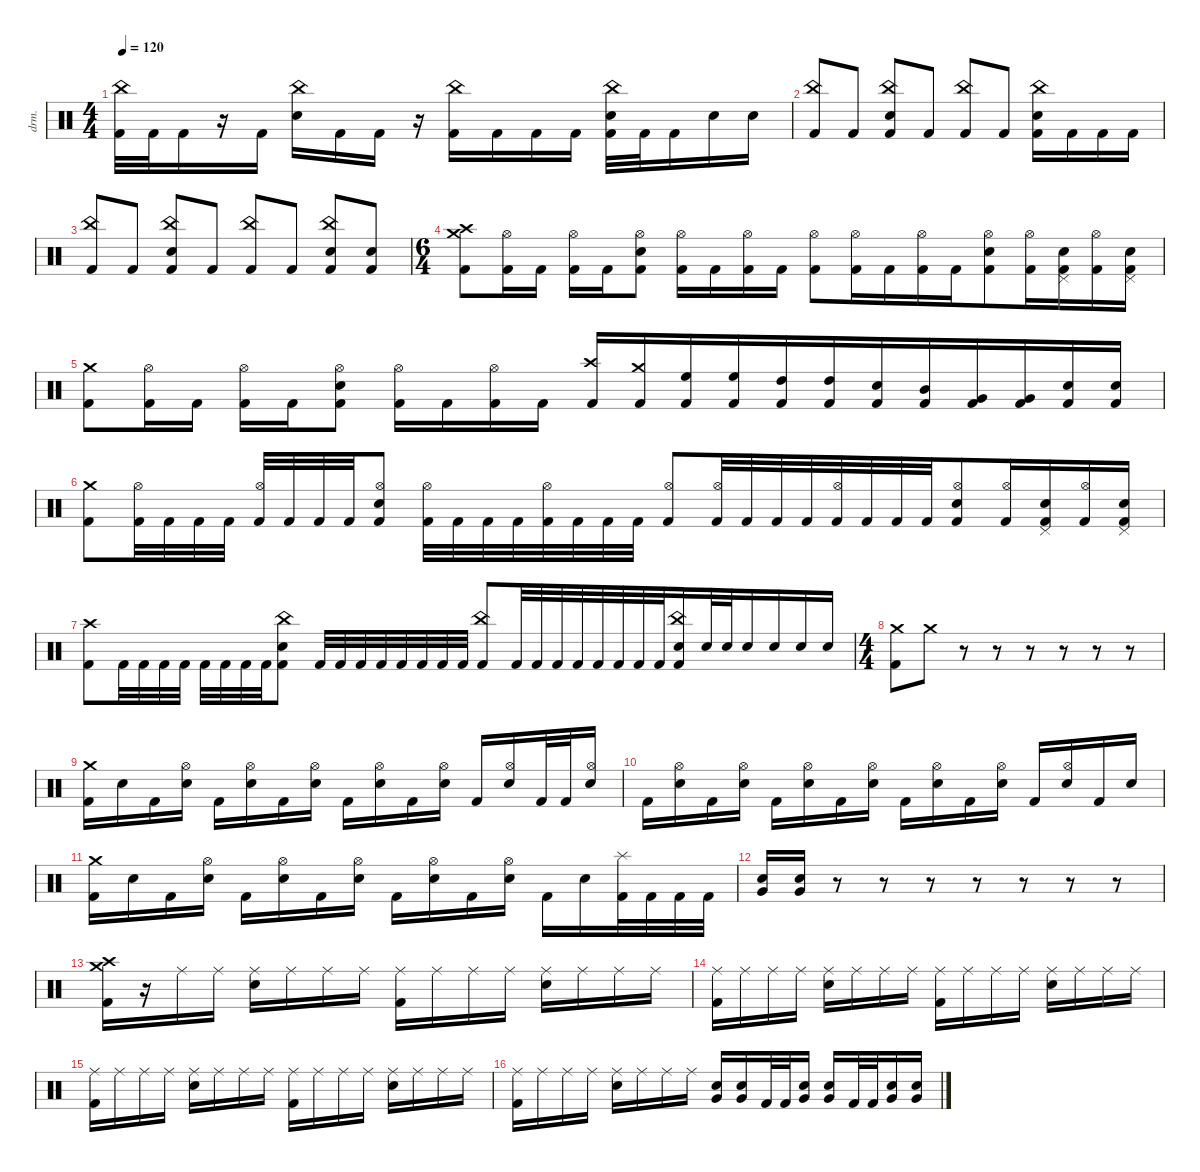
\defaultSystemsLayout 4
\hideDynamics
\bracketExtendMode nobrackets
\otherSystemsTrackNameOrientation horizontal
\track ("Percussion" "drm.") {instrument percussion}
\staff {score}
\articulation defaults
\ts (4 4)
\tempo 120
\clef neutral
\ks c
("Kick (hit) 2" "China (hit)").32{dy fff beam Down} "Kick (hit) 2".32{beam Down} "Kick (hit) 2".16{beam Down} r.16{beam Down} "Kick (hit) 2".16{beam Down} ("Snare (hit) 2" "China (hit)").16{beam Down} "Kick (hit) 2".16{beam Down} "Kick (hit) 2".16{beam Down} r.16{beam Down} ("Kick (hit) 2" "China (hit)").16{beam Down} "Kick (hit) 2".16{beam Down} "Kick (hit) 2".16{beam Down} "Kick (hit) 2".16{beam Down} ("Kick (hit) 2" "Snare (hit) 2" "China (hit)").32{beam Down} "Kick (hit) 2".32{beam Down} "Kick (hit) 2".16{beam Down} "Snare (hit) 2".16{beam Down} "Snare (hit) 2".16{beam Down} |
("Kick (hit) 2" "China (hit)").8{beam Up} "Kick (hit) 2".8{beam Up} ("Kick (hit) 2" "Snare (hit) 2" "China (hit)").8{beam Up} "Kick (hit) 2".8{beam Up} ("Kick (hit) 2" "China (hit)").8{beam Up} "Kick (hit) 2".8{beam Up} ("Kick (hit) 2" "Snare (hit) 2" "China (hit)").16{beam Down} "Kick (hit) 2".16{beam Down} "Kick (hit) 2".16{beam Down} "Kick (hit) 2".16{beam Down} |
("Kick (hit) 2" "China (hit)").8{beam Up} "Kick (hit) 2".8{beam Up} ("Kick (hit) 2" "Snare (hit) 2" "China (hit)").8{beam Up} "Kick (hit) 2".8{beam Up} ("Kick (hit) 2" "China (hit)").8{beam Up} "Kick (hit) 2".8{beam Up} ("Kick (hit) 2" "Snare (hit) 2" "China (hit)").8{beam Up} ("Kick (hit) 2" "Snare (hit) 2").8{beam Up} |
\ts (6 4)
\beaming (8 2 2 2 6)
("Kick (hit) 2" "Crash medium (hit)" "Crash high (hit)").8{beam Down} ("Kick (hit) 2" "Hi-Hat (open)").16{beam Down} "Kick (hit) 2".16{beam Down} ("Kick (hit) 2" "Hi-Hat (open)").16{beam Down} "Kick (hit) 2".16{beam Down} ("Kick (hit) 2" "Snare (hit) 2" "Hi-Hat (open)").8{beam Down} ("Kick (hit) 2" "Hi-Hat (open)").16{beam Down} "Kick (hit) 2".16{beam Down} ("Kick (hit) 2" "Hi-Hat (open)").16{beam Down} "Kick (hit) 2".16{beam Down} ("Kick (hit) 2" "Hi-Hat (open)").8{beam Down} ("Kick (hit) 2" "Hi-Hat (open)").16{beam Down} "Kick (hit) 2".16{beam Down} ("Kick (hit) 2" "Hi-Hat (open)").16{beam Down} "Kick (hit) 2".16{beam Down} ("Kick (hit) 2" "Snare (hit) 2" "Hi-Hat (open)").8{beam Down} ("Kick (hit) 2" "Hi-Hat (open)").16{beam Down} ("Kick (hit) 2" "Snare (hit) 2" "Pedal Hi-Hat (hit)").16{beam Down} ("Kick (hit) 2" "Hi-Hat (open)").16{beam Down} ("Kick (hit) 2" "Snare (hit) 2" "Pedal Hi-Hat (hit)").16{beam Down} |
("Kick (hit) 2" "Crash medium (hit)").8{beam Down} ("Kick (hit) 2" "Hi-Hat (open)").16{beam Down} "Kick (hit) 2".16{beam Down} ("Kick (hit) 2" "Hi-Hat (open)").16{beam Down} "Kick (hit) 2".16{beam Down} ("Kick (hit) 2" "Snare (hit) 2" "Hi-Hat (open)").8{beam Down} ("Kick (hit) 2" "Hi-Hat (open)").16{beam Down} "Kick (hit) 2".16{beam Down} ("Kick (hit) 2" "Hi-Hat (open)").16{beam Down} "Kick (hit) 2".16{beam Down} ("Kick (hit) 2" "Crash high (hit)").16{beam Up} ("Kick (hit) 2" "Crash medium (hit)").16{beam Up} ("Kick (hit) 2" "High Floor Tom (hit)").16{beam Up} ("Kick (hit) 2" "High Floor Tom (hit)").16{beam Up} ("Kick (hit) 2" "High Tom (hit)").16{beam Up} ("Kick (hit) 2" "High Tom (hit)").16{beam Up} ("Kick (hit) 2" "Snare (hit) 2").16{beam Up} ("Kick (hit) 2" "Mid Tom (hit)").16{beam Up} ("Kick (hit) 2" "Very Low Tom (hit)").16{beam Up} ("Kick (hit) 2" "Very Low Tom (hit)").16{beam Up} ("Kick (hit) 2" "Snare (hit) 2").16{beam Up} ("Kick (hit) 2" "Snare (hit) 2").16{beam Up} |
("Kick (hit) 2" "Crash medium (hit)").8{beam Down} ("Kick (hit) 2" "Hi-Hat (open)").32{beam Down} "Kick (hit) 2".32{beam Down} "Kick (hit) 2".32{beam Down} "Kick (hit) 2".32{beam Down} ("Kick (hit) 2" "Hi-Hat (open)").32{beam Up} "Kick (hit) 2".32{beam Up} "Kick (hit) 2".32{beam Up} "Kick (hit) 2".32{beam Up} ("Kick (hit) 2" "Snare (hit) 2" "Hi-Hat (open)").8{beam Up} ("Kick (hit) 2" "Hi-Hat (open)").32{beam Down} "Kick (hit) 2".32{beam Down} "Kick (hit) 2".32{beam Down} "Kick (hit) 2".32{beam Down} ("Kick (hit) 2" "Hi-Hat (open)").32{beam Down} "Kick (hit) 2".32{beam Down} "Kick (hit) 2".32{beam Down} "Kick (hit) 2".32{beam Down} ("Kick (hit) 2" "Hi-Hat (open)").8{beam Up} ("Kick (hit) 2" "Hi-Hat (open)").32{beam Up} "Kick (hit) 2".32{beam Up} "Kick (hit) 2".32{beam Up} "Kick (hit) 2".32{beam Up} ("Kick (hit) 2" "Hi-Hat (open)").32{beam Up} "Kick (hit) 2".32{beam Up} "Kick (hit) 2".32{beam Up} "Kick (hit) 2".32{beam Up} ("Kick (hit) 2" "Snare (hit) 2" "Hi-Hat (open)").8{beam Up} ("Kick (hit) 2" "Hi-Hat (open)").16{beam Up} ("Kick (hit) 2" "Snare (hit) 2" "Pedal Hi-Hat (hit)").16{beam Up} ("Kick (hit) 2" "Hi-Hat (open)").16{beam Up} ("Kick (hit) 2" "Snare (hit) 2" "Pedal Hi-Hat (hit)").16{beam Up} |
("Kick (hit) 2" "Crash high (hit)").8{beam Down} "Kick (hit) 2".32{beam Down} "Kick (hit) 2".32{beam Down} "Kick (hit) 2".32{beam Down} "Kick (hit) 2".32{beam Down} "Kick (hit) 2".32{beam Down} "Kick (hit) 2".32{beam Down} "Kick (hit) 2".32{beam Down} "Kick (hit) 2".32{beam Down} ("Kick (hit) 2" "Snare (hit) 2" "China (hit)").8{beam Down} "Kick (hit) 2".32{beam Up} "Kick (hit) 2".32{beam Up} "Kick (hit) 2".32{beam Up} "Kick (hit) 2".32{beam Up} "Kick (hit) 2".32{beam Up} "Kick (hit) 2".32{beam Up} "Kick (hit) 2".32{beam Up} "Kick (hit) 2".32{beam Up} ("Kick (hit) 2" "China (hit)").8{beam Up} "Kick (hit) 2".32{beam Up} "Kick (hit) 2".32{beam Up} "Kick (hit) 2".32{beam Up} "Kick (hit) 2".32{beam Up} "Kick (hit) 2".32{beam Up} "Kick (hit) 2".32{beam Up} "Kick (hit) 2".32{beam Up} "Kick (hit) 2".32{beam Up} ("Kick (hit) 2" "Snare (hit) 2" "China (hit)").16{beam Up} "Snare (hit) 2".32{beam Up} "Snare (hit) 2".32{beam Up} "Snare (hit) 2".16{beam Up} "Snare (hit) 2".16{beam Up} "Snare (hit) 2".16{beam Up} "Snare (hit) 2".16{beam Up} |
\ts (4 4)
\beaming (8 2 2 2 2)
("Kick (hit) 2" "Crash medium (hit)").8{beam Down} "Crash medium (hit)".8{dy ppp beam Down} r.8{beam Down} r.8{beam Down} r.8{beam Down} r.8{beam Down} r.8{beam Down} r.8{beam Down} |
("Kick (hit) 2" "Crash medium (hit)").16{dy fff beam Down} "Snare (hit) 2".16{beam Down} "Kick (hit) 2".16{beam Down} ("Snare (hit) 2" "Hi-Hat (open)").16{beam Down} "Kick (hit) 2".16{beam Down} ("Snare (hit) 2" "Hi-Hat (open)").16{beam Down} "Kick (hit) 2".16{beam Down} ("Snare (hit) 2" "Hi-Hat (open)").16{beam Down} "Kick (hit) 2".16{beam Down} ("Snare (hit) 2" "Hi-Hat (open)").16{beam Down} "Kick (hit) 2".16{beam Down} ("Snare (hit) 2" "Hi-Hat (open)").16{beam Down} "Kick (hit) 2".16{beam Up} ("Snare (hit) 2" "Hi-Hat (open)").16{beam Up} "Kick (hit) 2".32{beam Up} "Kick (hit) 2".32{beam Up} ("Snare (hit) 2" "Hi-Hat (open)").16{beam Up} |
"Kick (hit) 2".16{beam Down} ("Snare (hit) 2" "Hi-Hat (open)").16{beam Down} "Kick (hit) 2".16{beam Down} ("Snare (hit) 2" "Hi-Hat (open)").16{beam Down} "Kick (hit) 2".16{beam Down} ("Snare (hit) 2" "Hi-Hat (open)").16{beam Down} "Kick (hit) 2".16{beam Down} ("Snare (hit) 2" "Hi-Hat (open)").16{beam Down} "Kick (hit) 2".16{beam Down} ("Snare (hit) 2" "Hi-Hat (open)").16{beam Down} "Kick (hit) 2".16{beam Down} ("Snare (hit) 2" "Hi-Hat (open)").16{beam Down} "Kick (hit) 2".16{beam Up} ("Snare (hit) 2" "Hi-Hat (open)").16{beam Up} "Kick (hit) 2".16{beam Up} "Snare (hit) 2".16{beam Up} |
("Kick (hit) 2" "Crash medium (hit)").16{beam Down} "Snare (hit) 2".16{beam Down} "Kick (hit) 2".16{beam Down} ("Snare (hit) 2" "Hi-Hat (open)").16{beam Down} "Kick (hit) 2".16{beam Down} ("Snare (hit) 2" "Hi-Hat (open)").16{beam Down} "Kick (hit) 2".16{beam Down} ("Snare (hit) 2" "Hi-Hat (open)").16{beam Down} "Kick (hit) 2".16{beam Down} ("Snare (hit) 2" "Hi-Hat (open)").16{beam Down} "Kick (hit) 2".16{beam Down} ("Snare (hit) 2" "Hi-Hat (open)").16{beam Down} "Kick (hit) 2".16{beam Down} "Snare (hit) 2".16{beam Down} ("Kick (hit) 2" "Splash (hit)").32{beam Down} "Kick (hit) 2".32{beam Down} "Kick (hit) 2".32{beam Down} "Kick (hit) 2".32{beam Down} |
("Snare (hit) 2" "Very Low Tom (hit)").16{beam Up} ("Snare (hit) 2" "Very Low Tom (hit)").16{beam Up} r.8{beam Up} r.8{beam Up} r.8{beam Up} r.8{beam Up} r.8{beam Up} r.8{beam Up} r.8{beam Up} |
("Kick (hit) 2" "Crash medium (hit)" "Crash high (hit)").16{beam Down} r.16{beam Down} "Ride (middle)".16{beam Down} "Ride (middle)".16{beam Down} ("Snare (hit) 2" "Ride (middle)").16{beam Down} "Ride (middle)".16{beam Down} "Ride (middle)".16{beam Down} "Ride (middle)".16{beam Down} ("Kick (hit) 2" "Ride (middle)").16{beam Down} "Ride (middle)".16{beam Down} "Ride (middle)".16{beam Down} "Ride (middle)".16{beam Down} ("Snare (hit) 2" "Ride (middle)").16{beam Down} "Ride (middle)".16{beam Down} "Ride (middle)".16{beam Down} "Ride (middle)".16{beam Down} |
("Kick (hit) 2" "Ride (middle)").16{beam Down} "Ride (middle)".16{beam Down} "Ride (middle)".16{beam Down} "Ride (middle)".16{beam Down} ("Snare (hit) 2" "Ride (middle)").16{beam Down} "Ride (middle)".16{beam Down} "Ride (middle)".16{beam Down} "Ride (middle)".16{beam Down} ("Kick (hit) 2" "Ride (middle)").16{beam Down} "Ride (middle)".16{beam Down} "Ride (middle)".16{beam Down} "Ride (middle)".16{beam Down} ("Snare (hit) 2" "Ride (middle)").16{beam Down} "Ride (middle)".16{beam Down} "Ride (middle)".16{beam Down} "Ride (middle)".16{beam Down} |
("Kick (hit) 2" "Ride (middle)").16{beam Down} "Ride (middle)".16{beam Down} "Ride (middle)".16{beam Down} "Ride (middle)".16{beam Down} ("Snare (hit) 2" "Ride (middle)").16{beam Down} "Ride (middle)".16{beam Down} "Ride (middle)".16{beam Down} "Ride (middle)".16{beam Down} ("Kick (hit) 2" "Ride (middle)").16{beam Down} "Ride (middle)".16{beam Down} "Ride (middle)".16{beam Down} "Ride (middle)".16{beam Down} ("Snare (hit) 2" "Ride (middle)").16{beam Down} "Ride (middle)".16{beam Down} "Ride (middle)".16{beam Down} "Ride (middle)".16{beam Down} |
("Kick (hit) 2" "Ride (middle)").16{beam Down} "Ride (middle)".16{beam Down} "Ride (middle)".16{beam Down} "Ride (middle)".16{beam Down} ("Snare (hit) 2" "Ride (middle)").16{beam Down} "Ride (middle)".16{beam Down} "Ride (middle)".16{beam Down} "Ride (middle)".16{beam Down} ("Snare (hit) 2" "Very Low Tom (hit)").16{beam Up} ("Snare (hit) 2" "Very Low Tom (hit)").16{beam Up} "Kick (hit) 2".32{beam Up} "Kick (hit) 2".32{beam Up} ("Snare (hit) 2" "Very Low Tom (hit)").16{beam Up} ("Snare (hit) 2" "Very Low Tom (hit)").16{beam Up} "Kick (hit) 2".32{beam Up} "Kick (hit) 2".32{beam Up} ("Snare (hit) 2" "Very Low Tom (hit)").16{beam Up} ("Snare (hit) 2" "Very Low Tom (hit)").16{beam Up}
